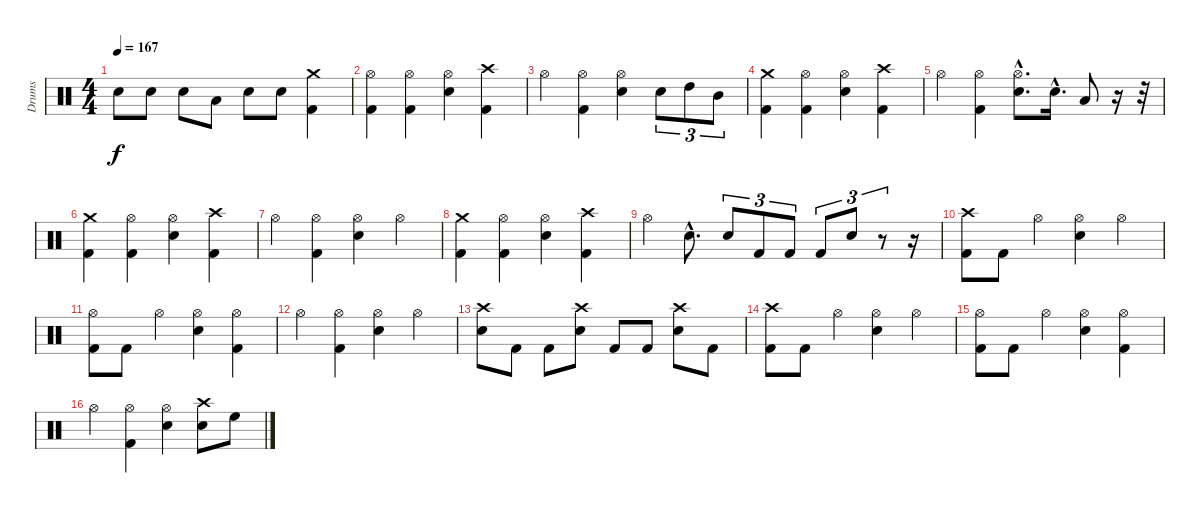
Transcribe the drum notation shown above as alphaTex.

\track ("Drums" "Drums") {instrument percussion}
\staff {score}
\articulation defaults
\ts (4 4)
\tempo 167
\clef neutral
\ks c "Snare (hit)"{t}.8{dy f} "Snare (hit) 2".8 "Snare (hit) 2".8 "Low Tom (hit)".8 "Snare (hit) 2".8 "Snare (hit) 2".8
("Crash medium (hit)" "Kick (hit) 2").4 |
("Hi-Hat (open)" "Kick (hit) 2").4 ("Hi-Hat (open)" "Kick (hit) 2").4 ("Hi-Hat (open)" "Snare (hit) 2").4 ("Crash high (hit)" "Kick (hit) 2").4 |
"Hi-Hat (open)".4 ("Hi-Hat (open)" "Kick (hit) 2").4 ("Hi-Hat (open)" "Snare (hit) 2").4 "Snare (hit) 2".8{tu (3 2)} "High Tom (hit)".8{tu (3 2)} "Mid Tom (hit)".8{tu (3 2)} |
("Crash medium (hit)" "Kick (hit) 2").4 ("Hi-Hat (open)" "Kick (hit) 2").4 ("Hi-Hat (open)" "Snare (hit) 2").4 ("Crash high (hit)" "Kick (hit) 2").4 |
"Hi-Hat (open)".4 ("Hi-Hat (open)" "Kick (hit) 2").4 ("Hi-Hat (open)"{hac} "Snare (hit) 2"{hac}).8{d} "Snare (hit) 2"{hac}.16{d} "Low Tom (hit)".8 r.16 r.32 |
("Crash medium (hit)" "Kick (hit) 2").4 ("Hi-Hat (open)" "Kick (hit) 2").4 ("Hi-Hat (open)" "Snare (hit) 2").4 ("Crash high (hit)" "Kick (hit) 2").4 |
"Hi-Hat (open)".4 ("Hi-Hat (open)" "Kick (hit) 2").4 ("Hi-Hat (open)" "Snare (hit) 2").4 "Hi-Hat (open)".4 |
("Crash medium (hit)" "Kick (hit) 2").4 ("Hi-Hat (open)" "Kick (hit) 2").4 ("Hi-Hat (open)" "Snare (hit) 2").4 ("Crash high (hit)" "Kick (hit) 2").4 |
"Hi-Hat (open)".4 "Snare (hit) 2"{hac}.8{d} "Snare (hit) 2".8{tu (3 2)} "Kick (hit) 2".8{tu (3 2)} "Kick (hit) 2".8{tu (3 2)} "Kick (hit) 2".8{tu (3 2)} "Snare (hit) 2".8{tu (3 2)} r.8{tu (3 2)} r.16 |
("Crash high (hit)" "Kick (hit) 2").8 "Kick (hit) 2".8 "Hi-Hat (open)".4 ("Hi-Hat (open)" "Snare (hit) 2").4 "Hi-Hat (open)".4 |
("Hi-Hat (open)" "Kick (hit) 2").8 "Kick (hit) 2".8 "Hi-Hat (open)".4 ("Hi-Hat (open)" "Snare (hit) 2").4 ("Hi-Hat (open)" "Kick (hit) 2").4 |
"Hi-Hat (open)".4 ("Hi-Hat (open)" "Kick (hit) 2").4 ("Hi-Hat (open)" "Snare (hit) 2").4 "Hi-Hat (open)".4 |
("Crash high (hit)" "Snare (hit) 2").8 "Kick (hit) 2".8 "Kick (hit) 2".8 ("Crash high (hit)" "Snare (hit) 2").8 "Kick (hit) 2".8 "Kick (hit) 2".8 ("Crash high (hit)" "Snare (hit) 2").8 "Kick (hit) 2".8 |
("Crash high (hit)" "Kick (hit) 2").8 "Kick (hit) 2".8 "Hi-Hat (open)".4 ("Hi-Hat (open)" "Snare (hit) 2").4 "Hi-Hat (open)".4 |
("Hi-Hat (open)" "Kick (hit) 2").8 "Kick (hit) 2".8 "Hi-Hat (open)".4 ("Hi-Hat (open)" "Snare (hit) 2").4 ("Hi-Hat (open)" "Kick (hit) 2").4 |
"Hi-Hat (open)".4 ("Hi-Hat (open)" "Kick (hit) 2").4 ("Hi-Hat (open)" "Snare (hit) 2").4 ("Crash high (hit)" "Snare (hit) 2").8 "High Floor Tom (hit)".8
